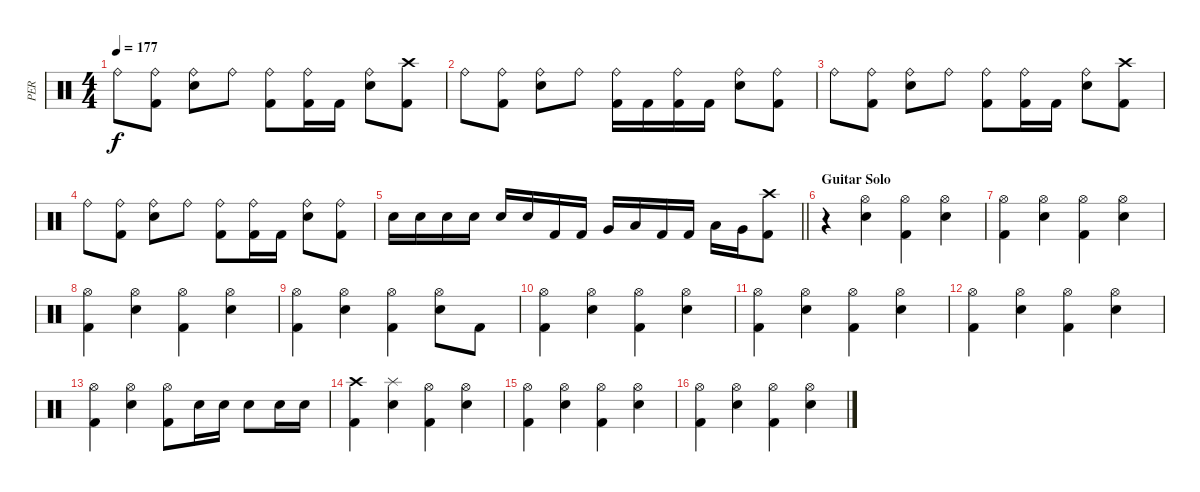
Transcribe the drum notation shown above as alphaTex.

\track ("PER" "PER") {instrument percussion}
\staff {score}
\articulation defaults
\ts (4 4)
\tempo 177
\clef neutral
\ks c "Ride (bell)".8{dy f}
("Ride (bell)" "Kick (hit) 2").8 ("Ride (bell)" "Electric Snare (hit)").8 "Ride (bell)".8 ("Ride (bell)" "Kick (hit) 2").8 ("Ride (bell)" "Kick (hit) 2").16 "Kick (hit) 2".16 ("Ride (bell)" "Electric Snare (hit)").8 ("Crash high (hit)" "Kick (hit) 2").8 |
"Ride (bell)".8 ("Ride (bell)" "Kick (hit) 2").8 ("Ride (bell)" "Electric Snare (hit)").8 "Ride (bell)".8 ("Ride (bell)" "Kick (hit) 2").16 "Kick (hit) 2".16 ("Ride (bell)" "Kick (hit) 2").16 "Kick (hit) 2".16 ("Ride (bell)" "Electric Snare (hit)").8 ("Ride (bell)" "Kick (hit) 2").8 |
"Ride (bell)".8 ("Ride (bell)" "Kick (hit) 2").8 ("Ride (bell)" "Electric Snare (hit)").8 "Ride (bell)".8 ("Ride (bell)" "Kick (hit) 2").8 ("Ride (bell)" "Kick (hit) 2").16 "Kick (hit) 2".16 ("Ride (bell)" "Electric Snare (hit)").8 ("Crash high (hit)" "Kick (hit) 2").8 |
"Ride (bell)".8 ("Ride (bell)" "Kick (hit) 2").8 ("Ride (bell)" "Electric Snare (hit)").8 "Ride (bell)".8 ("Ride (bell)" "Kick (hit) 2").8 ("Ride (bell)" "Kick (hit) 2").16 "Kick (hit) 2".16 ("Ride (bell)" "Electric Snare (hit)").8 ("Ride (bell)" "Kick (hit) 2").8 |
\barLineRight lightlight "Electric Snare (hit)".16 "Electric Snare (hit)".16 "Electric Snare (hit)".16 "Electric Snare (hit)".16 "Electric Snare (hit)".16 "Electric Snare (hit)".16 "Kick (hit) 2".16 "Kick (hit) 2".16 "Very Low Tom (hit)".16 "Low Tom (hit)".16 "Kick (hit) 2".16 "Kick (hit) 2".16 "Low Floor Tom (hit)".16 "Very Low Tom (hit)".16
("Crash high (hit)" "Kick (hit) 2").8 |
\section ("" "Guitar Solo")
r.4 ("Hi-Hat (open)" "Electric Snare (hit)").4 ("Hi-Hat (open)" "Kick (hit) 2").4 ("Hi-Hat (open)" "Electric Snare (hit)").4 |
("Hi-Hat (open)" "Kick (hit) 2").4 ("Hi-Hat (open)" "Electric Snare (hit)").4 ("Hi-Hat (open)" "Kick (hit) 2").4 ("Hi-Hat (open)" "Electric Snare (hit)").4 |
("Hi-Hat (open)" "Kick (hit) 2").4 ("Hi-Hat (open)" "Electric Snare (hit)").4 ("Hi-Hat (open)" "Kick (hit) 2").4 ("Hi-Hat (open)" "Electric Snare (hit)").4 |
("Hi-Hat (open)" "Kick (hit) 2").4 ("Hi-Hat (open)" "Electric Snare (hit)").4 ("Hi-Hat (open)" "Kick (hit) 2").4 ("Hi-Hat (open)" "Electric Snare (hit)").8 "Kick (hit) 2".8 |
("Hi-Hat (open)" "Kick (hit) 2").4 ("Hi-Hat (open)" "Electric Snare (hit)").4 ("Hi-Hat (open)" "Kick (hit) 2").4 ("Hi-Hat (open)" "Electric Snare (hit)").4 |
("Hi-Hat (open)" "Kick (hit) 2").4 ("Hi-Hat (open)" "Electric Snare (hit)").4 ("Hi-Hat (open)" "Kick (hit) 2").4 ("Hi-Hat (open)" "Electric Snare (hit)").4 |
("Hi-Hat (open)" "Kick (hit) 2").4 ("Hi-Hat (open)" "Electric Snare (hit)").4 ("Hi-Hat (open)" "Kick (hit) 2").4 ("Hi-Hat (open)" "Electric Snare (hit)").4 |
("Hi-Hat (open)" "Kick (hit) 2").4 ("Hi-Hat (open)" "Electric Snare (hit)").4 ("Hi-Hat (open)" "Kick (hit) 2").8 "Electric Snare (hit)".16 "Electric Snare (hit)".16 "Electric Snare (hit)".8 "Electric Snare (hit)".16 "Electric Snare (hit)".16 |
("Crash high (hit)" "Kick (hit) 2").4 ("Splash (hit)" "Electric Snare (hit)").4 ("Hi-Hat (open)" "Kick (hit) 2").4 ("Hi-Hat (open)" "Electric Snare (hit)").4 |
("Hi-Hat (open)" "Kick (hit) 2").4 ("Hi-Hat (open)" "Electric Snare (hit)").4 ("Hi-Hat (open)" "Kick (hit) 2").4 ("Hi-Hat (open)" "Electric Snare (hit)").4 |
("Hi-Hat (open)" "Kick (hit) 2").4 ("Hi-Hat (open)" "Electric Snare (hit)").4 ("Hi-Hat (open)" "Kick (hit) 2").4 ("Hi-Hat (open)" "Electric Snare (hit)").4
